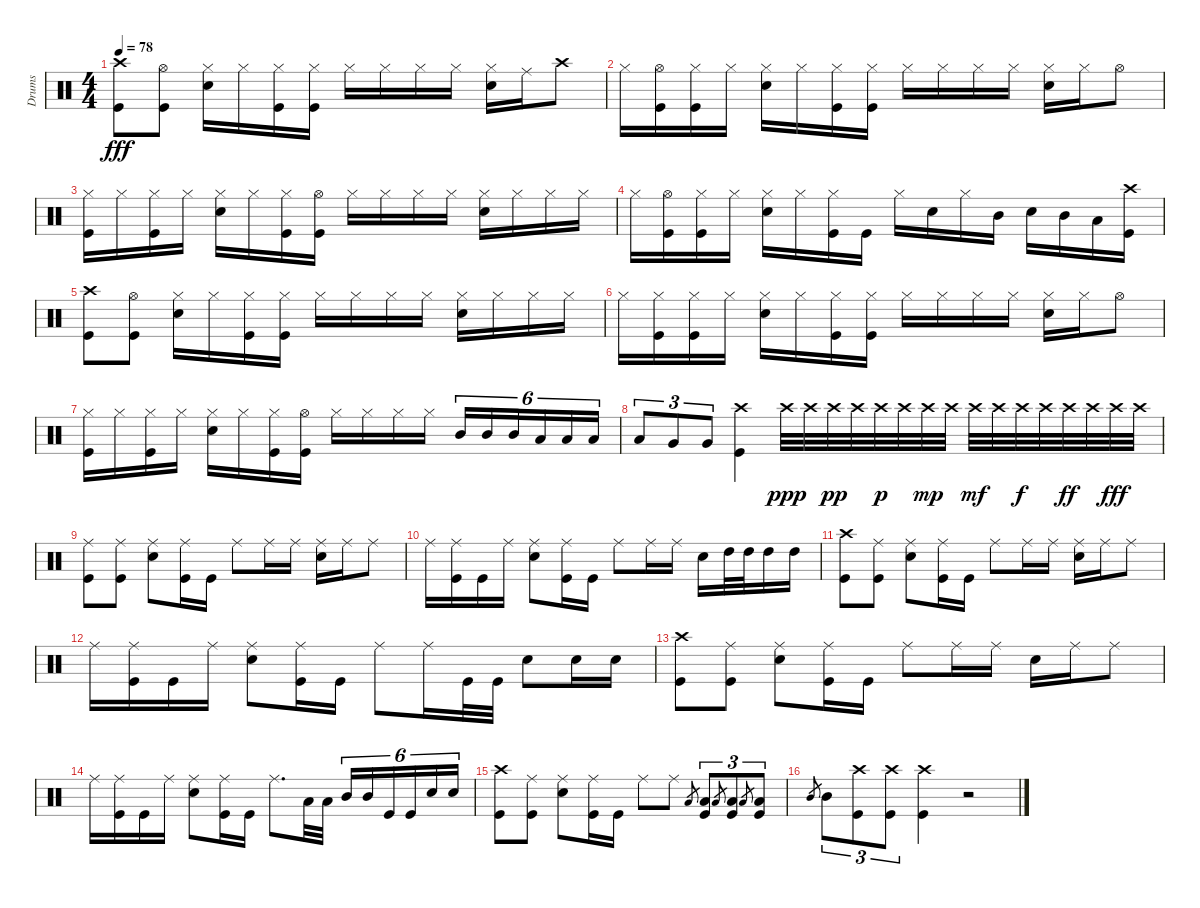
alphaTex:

\track ("Drums" "Drums") {instrument percussion}
\staff {score}
\articulation defaults
\ts (4 4)
\tempo 78
\clef neutral
\ks c
("Crash high (hit)" "Kick (hit)").8{dy fff} ("Hi-Hat (open)" "Kick (hit)").8 ("Hi-Hat (closed)" "Snare (hit) 2").16 "Hi-Hat (closed)".16 ("Hi-Hat (closed)" "Kick (hit)").16 ("Hi-Hat (closed)" "Kick (hit)").16 "Hi-Hat (closed)".16 "Hi-Hat (closed)".16 "Hi-Hat (closed)".16 "Hi-Hat (closed)".16 ("Hi-Hat (closed)" "Snare (hit) 2").16 "Ride (middle)".16 "Crash high (hit)".8 |
"Hi-Hat (closed)".16 ("Hi-Hat (open)" "Kick (hit)").16 ("Hi-Hat (closed)" "Kick (hit)").16 "Hi-Hat (closed)".16 ("Hi-Hat (closed)" "Snare (hit) 2").16 "Hi-Hat (closed)".16 ("Hi-Hat (closed)" "Kick (hit)").16 ("Hi-Hat (closed)" "Kick (hit)").16 "Hi-Hat (closed)".16 "Hi-Hat (closed)".16 "Hi-Hat (closed)".16 "Hi-Hat (closed)".16 ("Hi-Hat (closed)" "Snare (hit) 2").16 "Hi-Hat (closed)".16 "Hi-Hat (open)".8 |
("Hi-Hat (closed)" "Kick (hit)").16 "Hi-Hat (closed)".16 ("Hi-Hat (closed)" "Kick (hit)").16 "Hi-Hat (closed)".16 ("Hi-Hat (closed)" "Snare (hit) 2").16 "Hi-Hat (closed)".16 ("Hi-Hat (closed)" "Kick (hit)").16 ("Hi-Hat (open)" "Kick (hit)").16 "Hi-Hat (closed)".16 "Hi-Hat (closed)".16 "Hi-Hat (closed)".16 "Hi-Hat (closed)".16 ("Hi-Hat (closed)" "Snare (hit) 2").16 "Hi-Hat (closed)".16 "Hi-Hat (closed)".16 "Hi-Hat (closed)".16 |
"Hi-Hat (closed)".16 ("Hi-Hat (open)" "Kick (hit)").16 ("Hi-Hat (closed)" "Kick (hit)").16 "Hi-Hat (closed)".16 ("Hi-Hat (closed)" "Snare (hit) 2").16 "Hi-Hat (closed)".16 ("Hi-Hat (closed)" "Kick (hit)").16 "Kick (hit)".16 "Hi-Hat (closed)".16 "Snare (hit) 2".16 "Hi-Hat (closed)".16 "Mid Tom (hit)".16 "Snare (hit) 2".16 "Mid Tom (hit)".16 "Low Tom (hit)".16 ("Crash high (hit)" "Kick (hit)").16 |
("Crash high (hit)" "Kick (hit)").8 ("Hi-Hat (open)" "Kick (hit)").8 ("Hi-Hat (closed)" "Snare (hit) 2").16 "Hi-Hat (closed)".16 ("Hi-Hat (closed)" "Kick (hit)").16 ("Hi-Hat (closed)" "Kick (hit)").16 "Hi-Hat (closed)".16 "Hi-Hat (closed)".16 "Hi-Hat (closed)".16 "Hi-Hat (closed)".16 ("Hi-Hat (closed)" "Snare (hit) 2").16 "Hi-Hat (closed)".16 "Hi-Hat (closed)".16 "Hi-Hat (closed)".16 |
"Hi-Hat (closed)".16 ("Hi-Hat (closed)" "Kick (hit)").16 ("Hi-Hat (closed)" "Kick (hit)").16 "Hi-Hat (closed)".16 ("Hi-Hat (closed)" "Snare (hit) 2").16 "Hi-Hat (closed)".16 ("Hi-Hat (closed)" "Kick (hit)").16 ("Hi-Hat (closed)" "Kick (hit)").16 "Hi-Hat (closed)".16 "Hi-Hat (closed)".16 "Hi-Hat (closed)".16 "Hi-Hat (closed)".16 ("Hi-Hat (closed)" "Snare (hit) 2").16 "Hi-Hat (closed)".16 "Hi-Hat (open)".8 |
("Hi-Hat (closed)" "Kick (hit)").16 "Hi-Hat (closed)".16 ("Hi-Hat (closed)" "Kick (hit)").16 "Hi-Hat (closed)".16 ("Hi-Hat (closed)" "Snare (hit) 2").16 "Hi-Hat (closed)".16 ("Hi-Hat (closed)" "Kick (hit)").16 ("Hi-Hat (open)" "Kick (hit)").16 "Hi-Hat (closed)".16 "Hi-Hat (closed)".16 "Hi-Hat (closed)".16 "Hi-Hat (closed)".16 "Mid Tom (hit)".16{tu (6 4)} "Mid Tom (hit)".16{tu (6 4)} "Mid Tom (hit)".16{tu (6 4)} "Low Tom (hit)".16{tu (6 4)} "Low Tom (hit)".16{tu (6 4)} "Low Tom (hit)".16{tu (6 4)} |
"Low Tom (hit)".8{tu (3 2)} "Very Low Tom (hit)".8{tu (3 2)} "Very Low Tom (hit)".8{tu (3 2)} ("Crash high (hit)" "Kick (hit)").4 "Crash high (hit)".32{dy ppp} "Crash high (hit)".32 "Crash high (hit)".32{dy pp} "Crash high (hit)".32 "Crash high (hit)".32{dy p} "Crash high (hit)".32 "Crash high (hit)".32{dy mp} "Crash high (hit)".32 "Crash high (hit)".32{dy mf} "Crash high (hit)".32 "Crash high (hit)".32{dy f} "Crash high (hit)".32 "Crash high (hit)".32{dy ff} "Crash high (hit)".32 "Crash high (hit)".32{dy fff} "Crash high (hit)".32 |
("Ride (middle)" "Kick (hit)").8 ("Ride (middle)" "Kick (hit)").8 ("Ride (middle)" "Snare (hit) 2").8 ("Ride (middle)" "Kick (hit)").16 "Kick (hit)".16 "Ride (middle)".8 "Ride (middle)".16 "Ride (middle)".16 ("Ride (middle)" "Snare (hit) 2").16 "Ride (middle)".16 "Ride (middle)".8 |
"Ride (middle)".16 ("Ride (middle)" "Kick (hit)").16 "Kick (hit)".16 "Ride (middle)".16 ("Ride (middle)" "Snare (hit) 2").8 ("Ride (middle)" "Kick (hit)").16 "Kick (hit)".16 "Ride (middle)".8 "Ride (middle)".16 "Ride (middle)".16 "Snare (hit) 2".16 "High Tom (hit)".32 "High Tom (hit)".32 "High Tom (hit)".16 "High Tom (hit)".16 |
("Crash high (hit)" "Kick (hit)").8 ("Ride (middle)" "Kick (hit)").8 ("Ride (middle)" "Snare (hit) 2").8 ("Ride (middle)" "Kick (hit)").16 "Kick (hit)".16 "Ride (middle)".8 "Ride (middle)".16 "Ride (middle)".16 ("Ride (middle)" "Snare (hit) 2").16 "Ride (middle)".16 "Ride (middle)".8 |
"Ride (middle)".16 ("Ride (middle)" "Kick (hit)").16 "Kick (hit)".16 "Ride (middle)".16 ("Ride (middle)" "Snare (hit) 2").8 ("Ride (middle)" "Kick (hit)").16 "Kick (hit)".16 "Ride (middle)".8 "Ride (middle)".16 "Kick (hit)".32 "Kick (hit)".32 "Snare (hit) 2".8 "Snare (hit) 2".16 "Snare (hit) 2".16 |
("Crash high (hit)" "Kick (hit)").8 ("Ride (middle)" "Kick (hit)").8 ("Ride (middle)" "Snare (hit) 2").8 ("Ride (middle)" "Kick (hit)").16 "Kick (hit)".16 "Ride (middle)".8 "Ride (middle)".16 "Ride (middle)".16 "Snare (hit) 2".16 "Ride (middle)".16 "Ride (middle)".8 |
"Ride (middle)".16 ("Ride (middle)" "Kick (hit)").16 "Kick (hit)".16 "Ride (middle)".16 ("Ride (middle)" "Snare (hit) 2").8 ("Ride (middle)" "Kick (hit)").16 "Kick (hit)".16 "Ride (middle)".8{d} "Low Tom (hit)".32 "Low Tom (hit)".32 "Mid Tom (hit)".16{tu (6 4)} "Mid Tom (hit)".16{tu (6 4)} "Kick (hit)".16{tu (6 4)} "Kick (hit)".16{tu (6 4)} "Snare (hit) 2".16{tu (6 4)} "Snare (hit) 2".16{tu (6 4)} |
("Crash high (hit)" "Kick (hit)").8 ("Ride (middle)" "Kick (hit)").8 ("Ride (middle)" "Snare (hit) 2").8 ("Ride (middle)" "Kick (hit)").16 "Kick (hit)".16 "Ride (middle)".8 "Ride (middle)".8 "Low Tom (hit)".8{gr} ("Low Tom (hit)" "Kick (hit)").8{tu (3 2)} "Low Tom (hit)".8{gr} ("Low Tom (hit)" "Kick (hit)").8{tu (3 2)} "Low Tom (hit)".8{gr} ("Low Tom (hit)" "Kick (hit)").8{tu (3 2)} |
"Mid Tom (hit)".8{gr} "Mid Tom (hit)".8{tu (3 2)} ("Crash high (hit)" "Kick (hit)").8{tu (3 2)} ("Crash high (hit)" "Kick (hit)").8{tu (3 2)} ("Crash high (hit)" "Kick (hit)").4 r.2
